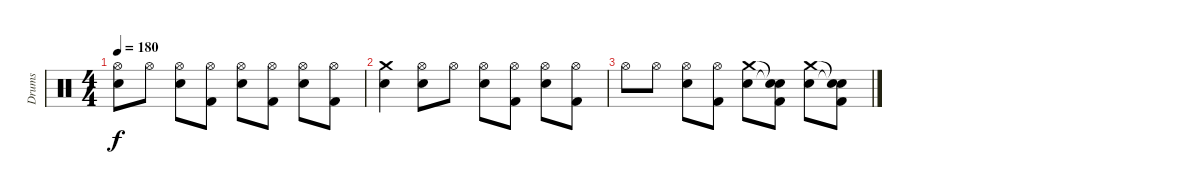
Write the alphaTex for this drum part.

\track ("Drums" "Drums") {instrument percussion}
\staff {score}
\articulation defaults
\ts (4 4)
\tempo 180
\clef neutral
\ks c
("Hi-Hat (open)" "Electric Snare (hit)").8{dy f} "Hi-Hat (open)".8 ("Hi-Hat (open)" "Electric Snare (hit)").8 ("Hi-Hat (open)" "Kick (hit) 2").8 ("Hi-Hat (open)" "Electric Snare (hit)").8 ("Hi-Hat (open)" "Kick (hit) 2").8 ("Hi-Hat (open)" "Electric Snare (hit)").8 ("Hi-Hat (open)" "Kick (hit) 2").8 |
("Crash medium (hit)" "Electric Snare (hit)").4 ("Hi-Hat (open)" "Electric Snare (hit)").8 "Hi-Hat (open)".8 ("Hi-Hat (open)" "Electric Snare (hit)").8 ("Hi-Hat (open)" "Kick (hit) 2").8 ("Hi-Hat (open)" "Electric Snare (hit)").8 ("Hi-Hat (open)" "Kick (hit) 2").8 |
"Hi-Hat (open)".8 "Hi-Hat (open)".8 ("Hi-Hat (open)" "Electric Snare (hit)").8 ("Hi-Hat (open)" "Kick (hit) 2").8 ("Crash medium (hit)" "Electric Snare (hit)").8 ("Snare (hit)"{t} "Snare (hit)"{t} "Kick (hit) 2").8 ("Crash medium (hit)" "Electric Snare (hit)").8 ("Snare (hit)"{t} "Snare (hit)"{t} "Kick (hit) 2").8
